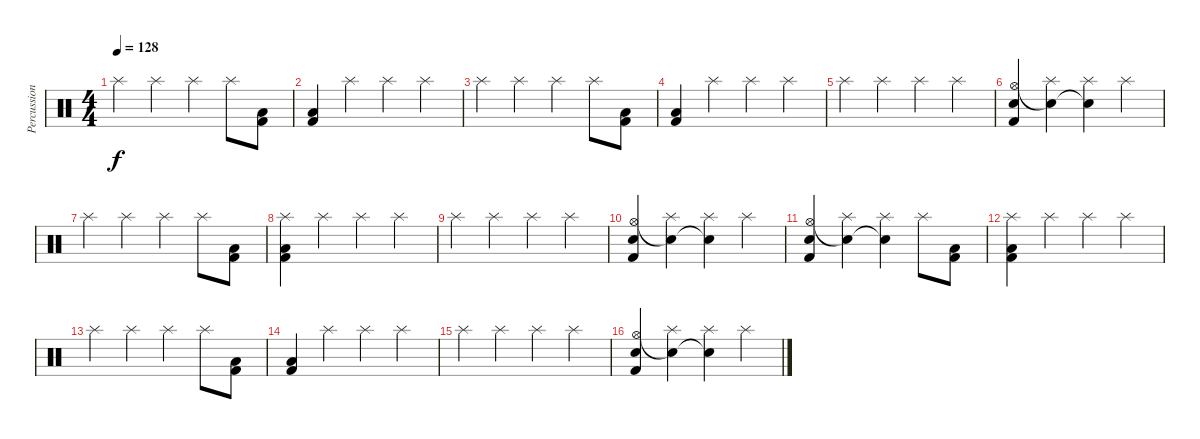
\track ("Percussion" "Percussion") {instrument percussion}
\staff {score}
\articulation defaults
\ts (4 4)
\tempo 128
\tempo 120
\tempo 128
\clef neutral
\ks c "Splash (hit)".4{dy f} "Splash (hit)".4 "Splash (hit)".4 "Splash (hit)".8
("Low Floor Tom (hit)" "Kick (hit) 2").8 |
("Low Floor Tom (hit)" "Kick (hit) 2").4 "Splash (hit)".4 "Splash (hit)".4 "Splash (hit)".4 |
"Splash (hit)".4 "Splash (hit)".4 "Splash (hit)".4 "Splash (hit)".8 ("Low Floor Tom (hit)" "Kick (hit) 2").8 |
("Low Floor Tom (hit)" "Kick (hit) 2").4 "Splash (hit)".4 "Splash (hit)".4 "Splash (hit)".4 |
"Splash (hit)".4 "Splash (hit)".4 "Splash (hit)".4 "Splash (hit)".4 |
("Hi-Hat (open)" "Electric Snare (hit)" "Kick (hit) 2").4 ("Snare (hit)"{t} "Splash (hit)").4 ("Snare (hit)"{t} "Splash (hit)").4 "Splash (hit)".4 |
"Splash (hit)".4 "Splash (hit)".4 "Splash (hit)".4 "Splash (hit)".8 ("Low Floor Tom (hit)" "Kick (hit) 2").8 |
("Splash (hit)" "Low Floor Tom (hit)" "Kick (hit) 2").4 "Splash (hit)".4 "Splash (hit)".4 "Splash (hit)".4 |
"Splash (hit)".4 "Splash (hit)".4 "Splash (hit)".4 "Splash (hit)".4 |
("Hi-Hat (open)" "Electric Snare (hit)" "Kick (hit) 2").4 ("Snare (hit)"{t} "Splash (hit)").4 ("Snare (hit)"{t} "Splash (hit)").4 "Splash (hit)".4 |
("Hi-Hat (open)" "Electric Snare (hit)" "Kick (hit) 2").4 ("Snare (hit)"{t} "Splash (hit)").4 ("Snare (hit)"{t} "Splash (hit)").4 "Splash (hit)".8 ("Low Floor Tom (hit)" "Kick (hit) 2").8 |
("Splash (hit)" "Low Floor Tom (hit)" "Kick (hit) 2").4 "Splash (hit)".4 "Splash (hit)".4 "Splash (hit)".4 |
"Splash (hit)".4 "Splash (hit)".4 "Splash (hit)".4 "Splash (hit)".8 ("Low Floor Tom (hit)" "Kick (hit) 2").8 |
("Low Floor Tom (hit)" "Kick (hit) 2").4 "Splash (hit)".4 "Splash (hit)".4 "Splash (hit)".4 |
"Splash (hit)".4 "Splash (hit)".4 "Splash (hit)".4 "Splash (hit)".4 |
("Hi-Hat (open)" "Electric Snare (hit)" "Kick (hit) 2").4 ("Snare (hit)"{t} "Splash (hit)").4 ("Snare (hit)"{t} "Splash (hit)").4 "Splash (hit)".4
